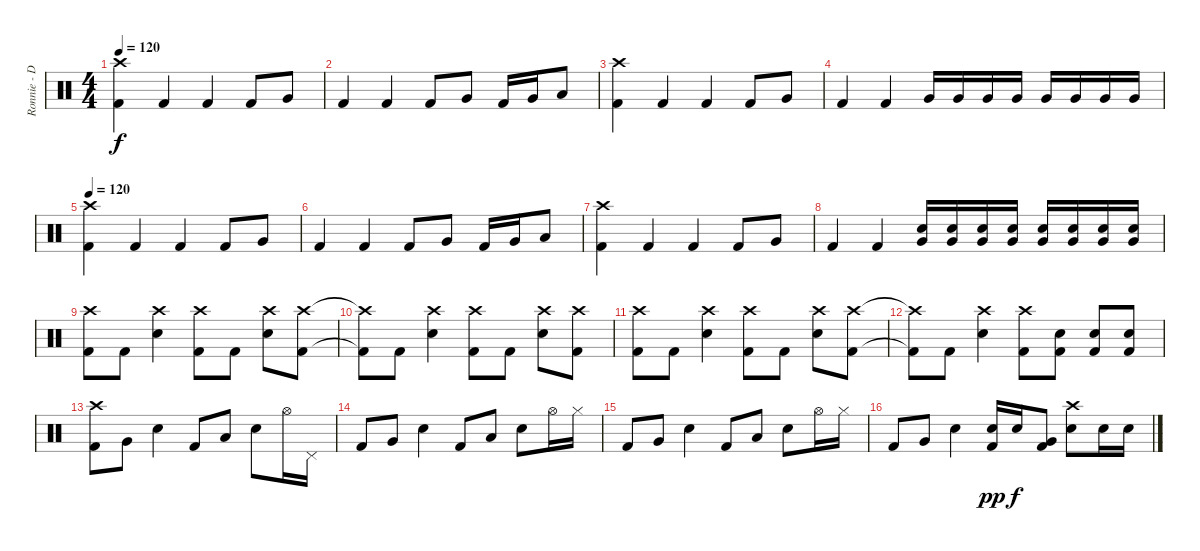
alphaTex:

\track ("Ronnie - Drums" "Ronnie - D") {instrument percussion}
\staff {score}
\articulation defaults
\ts (4 4)
\tempo 120
\clef neutral
\ks c
("Kick (hit) 2" "Crash high (hit)").4{dy f} "Kick (hit) 2".4 "Kick (hit) 2".4 "Kick (hit) 2".8 "Very Low Tom (hit)".8 |
"Kick (hit) 2".4 "Kick (hit) 2".4 "Kick (hit) 2".8 "Very Low Tom (hit)".8 "Kick (hit) 2".16 "Very Low Tom (hit)".16 "Low Floor Tom (hit)".8 |
("Kick (hit) 2" "Crash high (hit)").4 "Kick (hit) 2".4 "Kick (hit) 2".4 "Kick (hit) 2".8 "Very Low Tom (hit)".8 |
"Kick (hit) 2".4 "Kick (hit) 2".4 "Very Low Tom (hit)".16 "Very Low Tom (hit)".16 "Very Low Tom (hit)".16 "Very Low Tom (hit)".16 "Very Low Tom (hit)".16 "Very Low Tom (hit)".16 "Very Low Tom (hit)".16 "Very Low Tom (hit)".16 |
\tempo 120
("Kick (hit) 2" "Crash high (hit)").4 "Kick (hit) 2".4 "Kick (hit) 2".4 "Kick (hit) 2".8 "Very Low Tom (hit)".8 |
"Kick (hit) 2".4 "Kick (hit) 2".4 "Kick (hit) 2".8 "Very Low Tom (hit)".8 "Kick (hit) 2".16 "Very Low Tom (hit)".16 "Low Floor Tom (hit)".8 |
("Kick (hit) 2" "Crash high (hit)").4 "Kick (hit) 2".4 "Kick (hit) 2".4 "Kick (hit) 2".8 "Very Low Tom (hit)".8 |
"Kick (hit) 2".4 "Kick (hit) 2".4 ("Very Low Tom (hit)" "Snare (hit) 2").16 ("Very Low Tom (hit)" "Snare (hit) 2").16 ("Very Low Tom (hit)" "Snare (hit) 2").16 ("Very Low Tom (hit)" "Snare (hit) 2").16 ("Very Low Tom (hit)" "Snare (hit) 2").16 ("Very Low Tom (hit)" "Snare (hit) 2").16 ("Very Low Tom (hit)" "Snare (hit) 2").16 ("Very Low Tom (hit)" "Snare (hit) 2").16 |
("Crash high (hit)" "Kick (hit) 2").8 "Kick (hit) 2".8 ("Crash high (hit)" "Snare (hit) 2").4 ("Crash high (hit)" "Kick (hit) 2").8 "Kick (hit) 2".8 ("Crash high (hit)" "Snare (hit) 2").8 ("Crash high (hit)" "Kick (hit) 2").8 |
("Crash high (hit)"{t} "Kick (hit) 2"{t}).8 "Kick (hit) 2".8 ("Crash high (hit)" "Snare (hit) 2").4 ("Crash high (hit)" "Kick (hit) 2").8 "Kick (hit) 2".8 ("Crash high (hit)" "Snare (hit) 2").8 ("Crash high (hit)" "Kick (hit) 2").8 |
("Crash high (hit)" "Kick (hit) 2").8 "Kick (hit) 2".8 ("Crash high (hit)" "Snare (hit) 2").4 ("Crash high (hit)" "Kick (hit) 2").8 "Kick (hit) 2".8 ("Crash high (hit)" "Snare (hit) 2").8 ("Crash high (hit)" "Kick (hit) 2").8 |
("Crash high (hit)"{t} "Kick (hit) 2"{t}).8 "Kick (hit) 2".8 ("Crash high (hit)" "Snare (hit) 2").4 ("Crash high (hit)" "Kick (hit) 2").8 ("Kick (hit) 2" "Snare (hit) 2").8 ("Kick (hit) 2" "Snare (hit) 2").8 ("Kick (hit) 2" "Snare (hit) 2").8 |
("Crash high (hit)" "Kick (hit) 2").8 "Very Low Tom (hit)".8 "Snare (hit) 2".4 "Kick (hit) 2".8 "Low Floor Tom (hit)".8 "Snare (hit) 2".8 "Hi-Hat (open)".16 "Pedal Hi-Hat (hit)".16 |
"Kick (hit) 2".8 "Very Low Tom (hit)".8 "Snare (hit) 2".4 "Kick (hit) 2".8 "Low Floor Tom (hit)".8 "Snare (hit) 2".8 "Hi-Hat (open)".16 "Hi-Hat (closed)".16 |
"Kick (hit) 2".8 "Very Low Tom (hit)".8 "Snare (hit) 2".4 "Kick (hit) 2".8 "Low Floor Tom (hit)".8 "Snare (hit) 2".8 "Hi-Hat (open)".16 "Hi-Hat (closed)".16 |
"Kick (hit) 2".8 "Very Low Tom (hit)".8 "Snare (hit) 2".4 ("Snare (hit) 2" "Kick (hit) 2").16{dy pp} "Snare (hit) 2".16{dy f} ("Very Low Tom (hit)" "Kick (hit) 2").8 ("Crash high (hit)" "Snare (hit) 2").8 "Snare (hit) 2".16 "Snare (hit) 2".16
